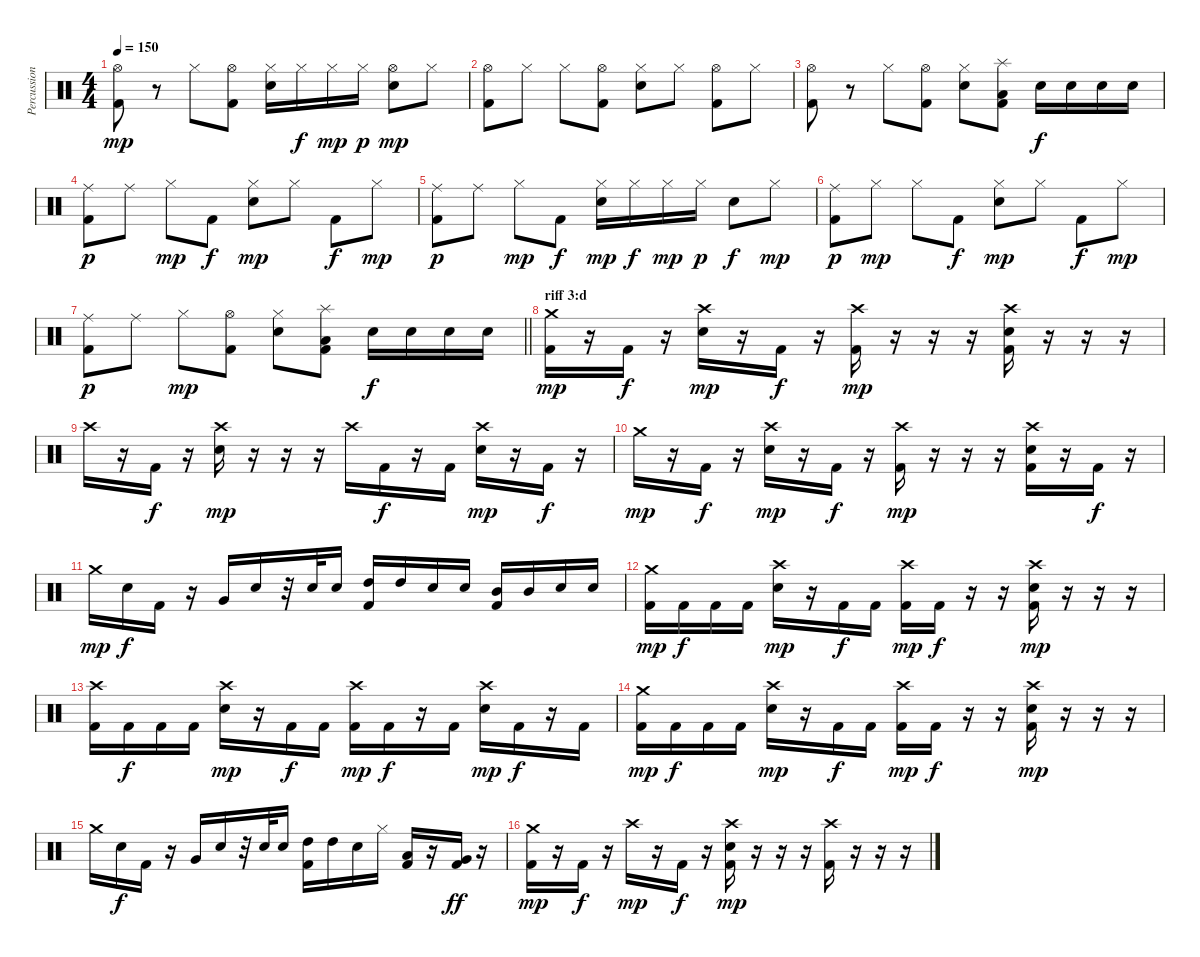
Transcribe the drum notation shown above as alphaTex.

\track ("Percussion" "Percussion") {instrument percussion}
\staff {score}
\articulation defaults
\ts (4 4)
\tempo 150
\clef neutral
\ks c
("Hi-Hat (open)" "Kick (hit) 2").8{dy mp} r.8 "Hi-Hat (closed)".8 ("Hi-Hat (open)" "Kick (hit) 2").8 ("Hi-Hat (closed)" "Electric Snare (hit)").16 "Hi-Hat (closed)".16{dy f} "Hi-Hat (closed)".16{dy mp} "Hi-Hat (closed)".16{dy p} ("Hi-Hat (open)" "Electric Snare (hit)").8{dy mp} "Hi-Hat (closed)".8 |
("Hi-Hat (open)" "Kick (hit) 2").8 "Hi-Hat (closed)".8 "Hi-Hat (closed)".8 ("Hi-Hat (open)" "Kick (hit) 2").8 ("Hi-Hat (closed)" "Electric Snare (hit)").8 "Hi-Hat (closed)".8 ("Hi-Hat (open)" "Kick (hit) 2").8 "Hi-Hat (closed)".8 |
("Hi-Hat (open)" "Kick (hit) 2").8 r.8 "Hi-Hat (closed)".8 ("Hi-Hat (open)" "Kick (hit) 2").8 ("Hi-Hat (closed)" "Electric Snare (hit)").8 ("Splash (hit)" "Low Floor Tom (hit)" "Kick (hit) 2").8 "Electric Snare (hit)".16{dy f} "Electric Snare (hit)".16 "Electric Snare (hit)".16 "Electric Snare (hit)".16 |
("Ride (middle)" "Kick (hit) 2").8{dy p} "Ride (middle)".8 "Hi-Hat (closed)".8{dy mp} "Kick (hit) 2".8{dy f} ("Hi-Hat (closed)" "Electric Snare (hit)").8{dy mp} "Hi-Hat (closed)".8 "Kick (hit) 2".8{dy f} "Hi-Hat (closed)".8{dy mp} |
("Ride (middle)" "Kick (hit) 2").8{dy p} "Ride (middle)".8 "Hi-Hat (closed)".8{dy mp} "Kick (hit) 2".8{dy f} ("Hi-Hat (closed)" "Electric Snare (hit)").16{dy mp} "Hi-Hat (closed)".16{dy f} "Hi-Hat (closed)".16{dy mp} "Hi-Hat (closed)".16{dy p} "Electric Snare (hit)".8{dy f} "Hi-Hat (closed)".8{dy mp} |
("Ride (middle)" "Kick (hit) 2").8{dy p} "Hi-Hat (closed)".8{dy mp} "Hi-Hat (closed)".8 "Kick (hit) 2".8{dy f} ("Hi-Hat (closed)" "Electric Snare (hit)").8{dy mp} "Hi-Hat (closed)".8 "Kick (hit) 2".8{dy f} "Hi-Hat (closed)".8{dy mp} |
\barLineRight lightlight
("Ride (middle)" "Kick (hit) 2").8{dy p} "Ride (middle)".8 "Hi-Hat (closed)".8{dy mp} ("Hi-Hat (open)" "Kick (hit) 2").8 ("Hi-Hat (closed)" "Electric Snare (hit)").8 ("Splash (hit)" "Low Floor Tom (hit)" "Kick (hit) 2").8 "Electric Snare (hit)".16{dy f} "Electric Snare (hit)".16 "Electric Snare (hit)".16 "Electric Snare (hit)".16 |
\section ("" "riff 3:d")
("Crash medium (hit)" "Kick (hit) 2").16{dy mp} r.16 "Kick (hit) 2".16{dy f} r.16 ("Crash high (hit)" "Electric Snare (hit)").16{dy mp} r.16 "Kick (hit) 2".16{dy f} r.16 ("Crash high (hit)" "Kick (hit) 2").16{dy mp} r.16 r.16 r.16 ("Crash high (hit)" "Electric Snare (hit)" "Kick (hit) 2").16 r.16 r.16 r.16 |
"Crash high (hit)".16 r.16 "Kick (hit) 2".16{dy f} r.16 ("Crash high (hit)" "Electric Snare (hit)").16{dy mp} r.16 r.16 r.16 "Crash high (hit)".16 "Kick (hit) 2".16{dy f} r.16 "Kick (hit) 2".16 ("Crash high (hit)" "Electric Snare (hit)").16{dy mp} r.16 "Kick (hit) 2".16{dy f} r.16 |
"Crash medium (hit)".16{dy mp} r.16 "Kick (hit) 2".16{dy f} r.16 ("Crash high (hit)" "Electric Snare (hit)").16{dy mp} r.16 "Kick (hit) 2".16{dy f} r.16 ("Crash high (hit)" "Kick (hit) 2").16{dy mp} r.16 r.16 r.16 ("Crash high (hit)" "Electric Snare (hit)" "Kick (hit) 2").16 r.16 "Kick (hit) 2".16{dy f} r.16 |
"Crash medium (hit)".16{dy mp} "Electric Snare (hit)".16{dy f} "Kick (hit) 2".16 r.16 "Very Low Tom (hit)".16 "Electric Snare (hit)".16 r.32 "Electric Snare (hit)".32 "Electric Snare (hit)".16 ("High Tom (hit)" "Kick (hit) 2").16 "High Tom (hit)".16 "Electric Snare (hit)".16 "Electric Snare (hit)".16 ("Mid Tom (hit)" "Kick (hit) 2").16 "Mid Tom (hit)".16 "Electric Snare (hit)".16 "Electric Snare (hit)".16 |
("Crash medium (hit)" "Kick (hit) 2").16{dy mp} "Kick (hit) 2".16{dy f} "Kick (hit) 2".16 "Kick (hit) 2".16 ("Crash high (hit)" "Electric Snare (hit)").16{dy mp} r.16 "Kick (hit) 2".16{dy f} "Kick (hit) 2".16 ("Crash high (hit)" "Kick (hit) 2").16{dy mp} "Kick (hit) 2".16{dy f} r.16 r.16 ("Crash high (hit)" "Electric Snare (hit)" "Kick (hit) 2").16{dy mp} r.16 r.16 r.16 |
("Crash high (hit)" "Kick (hit) 2").16 "Kick (hit) 2".16{dy f} "Kick (hit) 2".16 "Kick (hit) 2".16 ("Crash high (hit)" "Electric Snare (hit)").16{dy mp} r.16 "Kick (hit) 2".16{dy f} "Kick (hit) 2".16 ("Crash high (hit)" "Kick (hit) 2").16{dy mp} "Kick (hit) 2".16{dy f} r.16 "Kick (hit) 2".16 ("Crash high (hit)" "Electric Snare (hit)").16{dy mp} "Kick (hit) 2".16{dy f} r.16 "Kick (hit) 2".16 |
("Crash medium (hit)" "Kick (hit) 2").16{dy mp} "Kick (hit) 2".16{dy f} "Kick (hit) 2".16 "Kick (hit) 2".16 ("Crash high (hit)" "Electric Snare (hit)").16{dy mp} r.16 "Kick (hit) 2".16{dy f} "Kick (hit) 2".16 ("Crash high (hit)" "Kick (hit) 2").16{dy mp} "Kick (hit) 2".16{dy f} r.16 r.16 ("Crash high (hit)" "Electric Snare (hit)" "Kick (hit) 2").16{dy mp} r.16 r.16 r.16 |
"Crash medium (hit)".16 "Electric Snare (hit)".16{dy f} "Kick (hit) 2".16 r.16 "Very Low Tom (hit)".16 "Electric Snare (hit)".16 r.32 "Electric Snare (hit)".32 "Electric Snare (hit)".16 ("High Tom (hit)" "Kick (hit) 2").16 "High Tom (hit)".16 "Electric Snare (hit)".16 "Hi-Hat (closed)".16 ("Low Floor Tom (hit)" "Kick (hit) 2").16 r.16 ("Very Low Tom (hit)" "Kick (hit) 2").16{dy ff} r.16 |
("Crash medium (hit)" "Kick (hit) 2").16{dy mp} r.16 "Kick (hit) 2".16{dy f} r.16 "Crash high (hit)".16{dy mp} r.16 "Kick (hit) 2".16{dy f} r.16 ("Crash high (hit)" "Electric Snare (hit)" "Kick (hit) 2").16{dy mp} r.16 r.16 r.16 ("Crash high (hit)" "Kick (hit) 2").16 r.16 r.16 r.16
